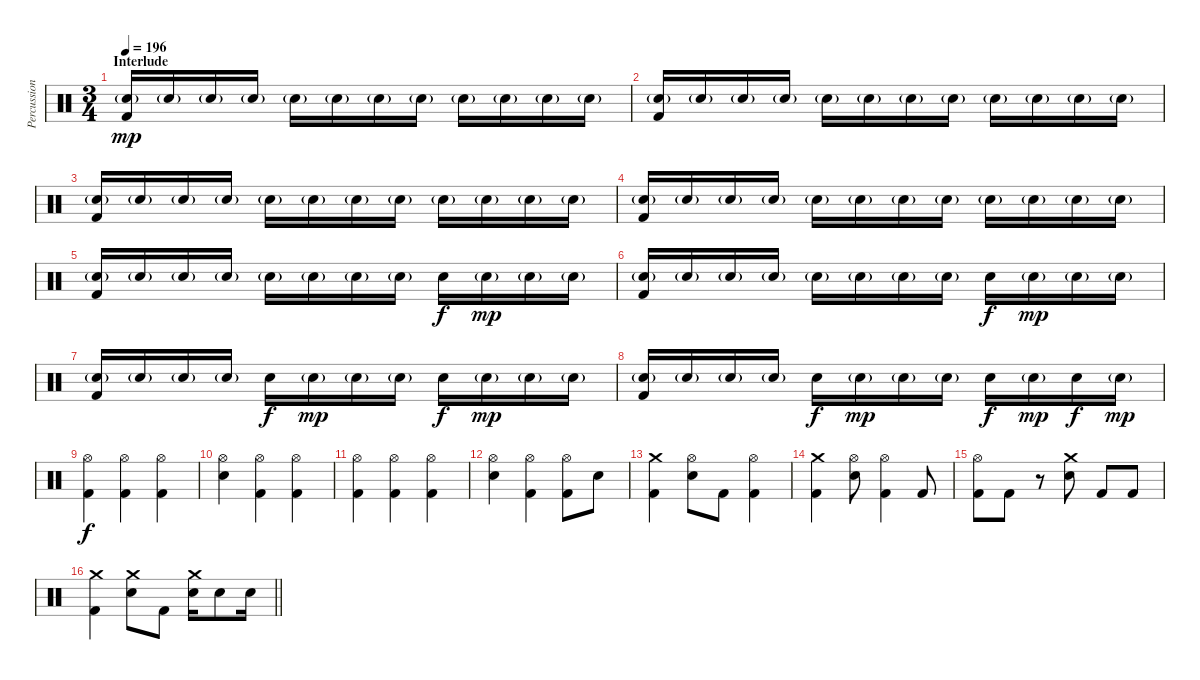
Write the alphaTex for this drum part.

\track ("Percussion" "Percussion") {instrument percussion}
\staff {score}
\articulation defaults
\ts (3 4)
\section ("" "Interlude")
\tempo 196
\clef neutral
\ks c
("Electric Snare (hit)"{g} "Kick (hit) 2").16{dy mp} "Electric Snare (hit)"{g}.16 "Electric Snare (hit)"{g}.16 "Electric Snare (hit)"{g}.16 "Electric Snare (hit)"{g}.16 "Electric Snare (hit)"{g}.16 "Electric Snare (hit)"{g}.16 "Electric Snare (hit)"{g}.16 "Electric Snare (hit)"{g}.16 "Electric Snare (hit)"{g}.16 "Electric Snare (hit)"{g}.16 "Electric Snare (hit)"{g}.16 |
("Electric Snare (hit)"{g} "Kick (hit) 2").16 "Electric Snare (hit)"{g}.16 "Electric Snare (hit)"{g}.16 "Electric Snare (hit)"{g}.16 "Electric Snare (hit)"{g}.16 "Electric Snare (hit)"{g}.16 "Electric Snare (hit)"{g}.16 "Electric Snare (hit)"{g}.16 "Electric Snare (hit)"{g}.16 "Electric Snare (hit)"{g}.16 "Electric Snare (hit)"{g}.16 "Electric Snare (hit)"{g}.16 |
("Electric Snare (hit)"{g} "Kick (hit) 2").16 "Electric Snare (hit)"{g}.16 "Electric Snare (hit)"{g}.16 "Electric Snare (hit)"{g}.16 "Electric Snare (hit)"{g}.16 "Electric Snare (hit)"{g}.16 "Electric Snare (hit)"{g}.16 "Electric Snare (hit)"{g}.16 "Electric Snare (hit)"{g}.16 "Electric Snare (hit)"{g}.16 "Electric Snare (hit)"{g}.16 "Electric Snare (hit)"{g}.16 |
("Electric Snare (hit)"{g} "Kick (hit) 2").16 "Electric Snare (hit)"{g}.16 "Electric Snare (hit)"{g}.16 "Electric Snare (hit)"{g}.16 "Electric Snare (hit)"{g}.16 "Electric Snare (hit)"{g}.16 "Electric Snare (hit)"{g}.16 "Electric Snare (hit)"{g}.16 "Electric Snare (hit)"{g}.16 "Electric Snare (hit)"{g}.16 "Electric Snare (hit)"{g}.16 "Electric Snare (hit)"{g}.16 |
("Electric Snare (hit)"{g} "Kick (hit) 2").16 "Electric Snare (hit)"{g}.16 "Electric Snare (hit)"{g}.16 "Electric Snare (hit)"{g}.16 "Electric Snare (hit)"{g}.16 "Electric Snare (hit)"{g}.16 "Electric Snare (hit)"{g}.16 "Electric Snare (hit)"{g}.16 "Electric Snare (hit)".16{dy f} "Electric Snare (hit)"{g}.16{dy mp} "Electric Snare (hit)"{g}.16 "Electric Snare (hit)"{g}.16 |
("Electric Snare (hit)"{g} "Kick (hit) 2").16 "Electric Snare (hit)"{g}.16 "Electric Snare (hit)"{g}.16 "Electric Snare (hit)"{g}.16 "Electric Snare (hit)"{g}.16 "Electric Snare (hit)"{g}.16 "Electric Snare (hit)"{g}.16 "Electric Snare (hit)"{g}.16 "Electric Snare (hit)".16{dy f} "Electric Snare (hit)"{g}.16{dy mp} "Electric Snare (hit)"{g}.16 "Electric Snare (hit)"{g}.16 |
("Electric Snare (hit)"{g} "Kick (hit) 2").16 "Electric Snare (hit)"{g}.16 "Electric Snare (hit)"{g}.16 "Electric Snare (hit)"{g}.16 "Electric Snare (hit)".16{dy f} "Electric Snare (hit)"{g}.16{dy mp} "Electric Snare (hit)"{g}.16 "Electric Snare (hit)"{g}.16 "Electric Snare (hit)".16{dy f} "Electric Snare (hit)"{g}.16{dy mp} "Electric Snare (hit)"{g}.16 "Electric Snare (hit)"{g}.16 |
("Electric Snare (hit)"{g} "Kick (hit) 2").16 "Electric Snare (hit)"{g}.16 "Electric Snare (hit)"{g}.16 "Electric Snare (hit)"{g}.16 "Electric Snare (hit)".16{dy f} "Electric Snare (hit)"{g}.16{dy mp} "Electric Snare (hit)"{g}.16 "Electric Snare (hit)"{g}.16 "Electric Snare (hit)".16{dy f} "Electric Snare (hit)"{g}.16{dy mp} "Electric Snare (hit)".16{dy f} "Electric Snare (hit)"{g}.16{dy mp} |
("Hi-Hat (open)" "Kick (hit) 2").4{dy f} ("Hi-Hat (open)" "Kick (hit) 2").4 ("Hi-Hat (open)" "Kick (hit) 2").4 |
("Hi-Hat (open)" "Electric Snare (hit)").4 ("Hi-Hat (open)" "Kick (hit) 2").4 ("Hi-Hat (open)" "Kick (hit) 2").4 |
("Hi-Hat (open)" "Kick (hit) 2").4 ("Hi-Hat (open)" "Kick (hit) 2").4 ("Hi-Hat (open)" "Kick (hit) 2").4 |
("Hi-Hat (open)" "Electric Snare (hit)").4 ("Hi-Hat (open)" "Kick (hit) 2").4 ("Hi-Hat (open)" "Kick (hit) 2").8 "Electric Snare (hit)".8 |
("Crash medium (hit)" "Kick (hit) 2").4 ("Hi-Hat (open)" "Electric Snare (hit)").8 "Kick (hit) 2".8 ("Hi-Hat (open)" "Kick (hit) 2").4 |
("Crash medium (hit)" "Kick (hit) 2").4 ("Hi-Hat (open)" "Electric Snare (hit)").8 ("Hi-Hat (open)" "Kick (hit) 2").4 "Kick (hit) 2".8 |
("Hi-Hat (open)" "Kick (hit) 2").8 "Kick (hit) 2".8 r.8 ("Crash medium (hit)" "Electric Snare (hit)").8 "Kick (hit) 2".8 "Kick (hit) 2".8 |
\barLineRight lightlight
("Crash medium (hit)" "Kick (hit) 2").4 ("Crash medium (hit)" "Electric Snare (hit)").8 "Kick (hit) 2".8 ("Crash medium (hit)" "Electric Snare (hit)").16 "Electric Snare (hit)".8 "Electric Snare (hit)".16
